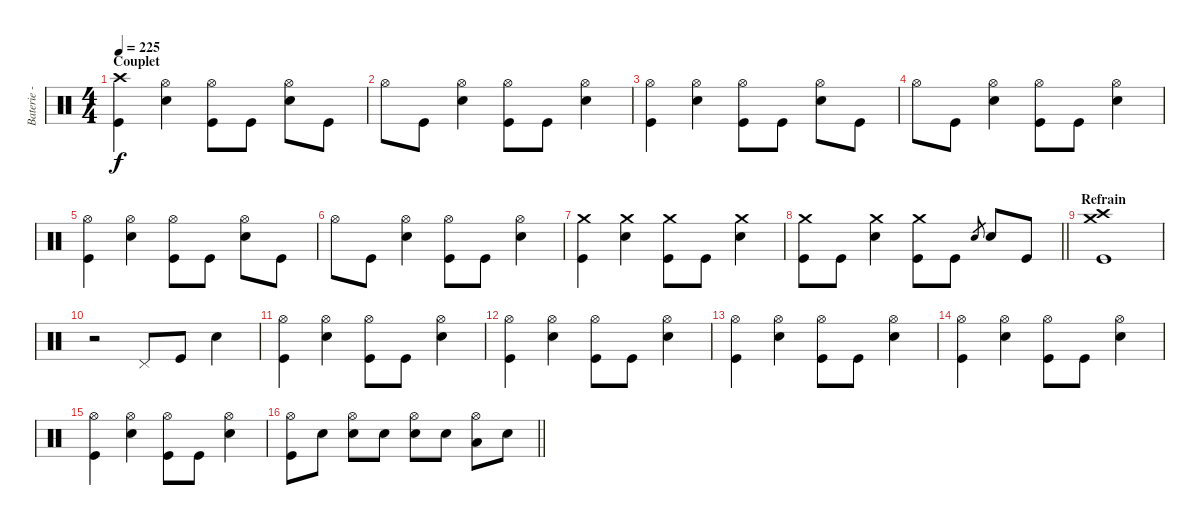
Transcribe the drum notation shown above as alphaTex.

\track ("Baterie - Alex" "Baterie - ") {instrument percussion}
\staff {score}
\articulation defaults
\ts (4 4)
\section ("" "Couplet")
\tempo 225
\clef neutral
\ks c
("Crash high (hit)" "Kick (hit)").4{dy f} ("Hi-Hat (open)" "Electric Snare (hit)").4 ("Hi-Hat (open)" "Kick (hit)").8 "Kick (hit)".8 ("Hi-Hat (open)" "Electric Snare (hit)").8 "Kick (hit)".8 |
"Hi-Hat (open)".8 "Kick (hit)".8 ("Hi-Hat (open)" "Electric Snare (hit)").4 ("Hi-Hat (open)" "Kick (hit)").8 "Kick (hit)".8 ("Hi-Hat (open)" "Electric Snare (hit)").4 |
("Hi-Hat (open)" "Kick (hit)").4 ("Hi-Hat (open)" "Electric Snare (hit)").4 ("Hi-Hat (open)" "Kick (hit)").8 "Kick (hit)".8 ("Hi-Hat (open)" "Electric Snare (hit)").8 "Kick (hit)".8 |
"Hi-Hat (open)".8 "Kick (hit)".8 ("Hi-Hat (open)" "Electric Snare (hit)").4 ("Hi-Hat (open)" "Kick (hit)").8 "Kick (hit)".8 ("Hi-Hat (open)" "Electric Snare (hit)").4 |
("Hi-Hat (open)" "Kick (hit)").4 ("Hi-Hat (open)" "Electric Snare (hit)").4 ("Hi-Hat (open)" "Kick (hit)").8 "Kick (hit)".8 ("Hi-Hat (open)" "Electric Snare (hit)").8 "Kick (hit)".8 |
"Hi-Hat (open)".8 "Kick (hit)".8 ("Hi-Hat (open)" "Electric Snare (hit)").4 ("Hi-Hat (open)" "Kick (hit)").8 "Kick (hit)".8 ("Hi-Hat (open)" "Electric Snare (hit)").4 |
("Crash medium (hit)" "Kick (hit)").4 ("Crash medium (hit)" "Electric Snare (hit)").4 ("Crash medium (hit)" "Kick (hit)").8 "Kick (hit)".8 ("Crash medium (hit)" "Electric Snare (hit)").4 |
\barLineRight lightlight
("Crash medium (hit)" "Kick (hit)").8 "Kick (hit)".8 ("Crash medium (hit)" "Electric Snare (hit)").4 ("Crash medium (hit)" "Kick (hit)").8 "Kick (hit)".8 "Electric Snare (hit)".8{gr} "Electric Snare (hit)".8 "Kick (hit)".8 |
\section ("" "Refrain")
("Crash high (hit)" "Crash medium (hit)" "Kick (hit)").1 |
r.2 "Pedal Hi-Hat (hit)".8 "Kick (hit)".8 "Electric Snare (hit)".4 |
("Hi-Hat (open)" "Kick (hit)").4 ("Hi-Hat (open)" "Electric Snare (hit)").4 ("Hi-Hat (open)" "Kick (hit)").8 "Kick (hit)".8 ("Hi-Hat (open)" "Electric Snare (hit)").4 |
("Hi-Hat (open)" "Kick (hit)").4 ("Hi-Hat (open)" "Electric Snare (hit)").4 ("Hi-Hat (open)" "Kick (hit)").8 "Kick (hit)".8 ("Hi-Hat (open)" "Electric Snare (hit)").4 |
("Hi-Hat (open)" "Kick (hit)").4 ("Hi-Hat (open)" "Electric Snare (hit)").4 ("Hi-Hat (open)" "Kick (hit)").8 "Kick (hit)".8 ("Hi-Hat (open)" "Electric Snare (hit)").4 |
("Hi-Hat (open)" "Kick (hit)").4 ("Hi-Hat (open)" "Electric Snare (hit)").4 ("Hi-Hat (open)" "Kick (hit)").8 "Kick (hit)".8 ("Hi-Hat (open)" "Electric Snare (hit)").4 |
("Hi-Hat (open)" "Kick (hit)").4 ("Hi-Hat (open)" "Electric Snare (hit)").4 ("Hi-Hat (open)" "Kick (hit)").8 "Kick (hit)".8 ("Hi-Hat (open)" "Electric Snare (hit)").4 |
\barLineRight lightlight
("Hi-Hat (open)" "Kick (hit)").8 "Electric Snare (hit)".8 ("Hi-Hat (open)" "Electric Snare (hit)").8 "Electric Snare (hit)".8 ("Hi-Hat (open)" "Electric Snare (hit)").8 "Electric Snare (hit)".8 ("Hi-Hat (open)" "Low Floor Tom (hit)").8 "Electric Snare (hit)".8
